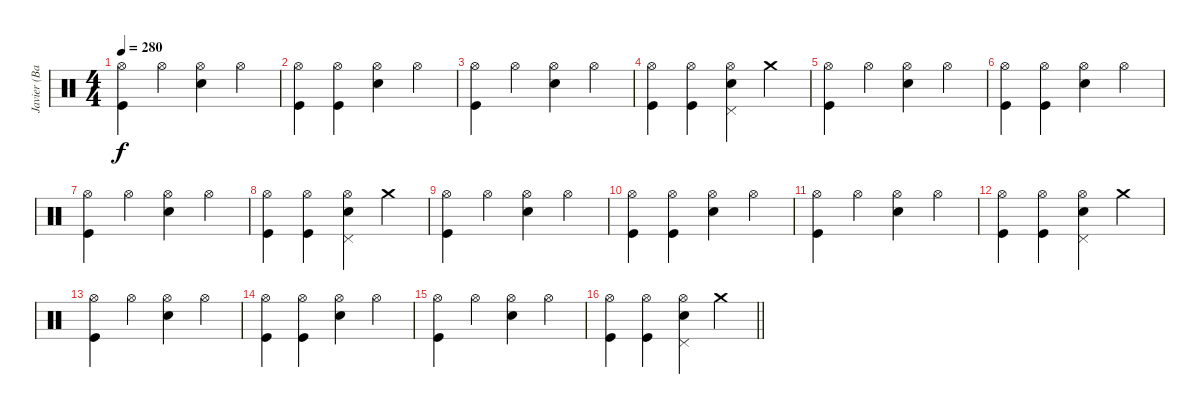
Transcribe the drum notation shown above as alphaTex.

\track ("Javier (Bateria)" "Javier (Ba") {instrument percussion}
\staff {score}
\articulation defaults
\ts (4 4)
\tempo 280
\clef neutral
\ks c
("Hi-Hat (open)" "Kick (hit)").4{dy f} "Hi-Hat (open)".4 ("Hi-Hat (open)" "Snare (hit) 2").4 "Hi-Hat (open)".4 |
("Hi-Hat (open)" "Kick (hit)").4 ("Hi-Hat (open)" "Kick (hit)").4 ("Hi-Hat (open)" "Snare (hit) 2").4 "Hi-Hat (open)".4 |
("Hi-Hat (open)" "Kick (hit)").4 "Hi-Hat (open)".4 ("Hi-Hat (open)" "Snare (hit) 2").4 "Hi-Hat (open)".4 |
("Hi-Hat (open)" "Kick (hit)").4 ("Hi-Hat (open)" "Kick (hit)").4 ("Hi-Hat (open)" "Pedal Hi-Hat (hit)" "Snare (hit) 2").4 "Crash medium (hit)".4 |
("Hi-Hat (open)" "Kick (hit)").4 "Hi-Hat (open)".4 ("Hi-Hat (open)" "Snare (hit) 2").4 "Hi-Hat (open)".4 |
("Hi-Hat (open)" "Kick (hit)").4 ("Hi-Hat (open)" "Kick (hit)").4 ("Hi-Hat (open)" "Snare (hit) 2").4 "Hi-Hat (open)".4 |
("Hi-Hat (open)" "Kick (hit)").4 "Hi-Hat (open)".4 ("Hi-Hat (open)" "Snare (hit) 2").4 "Hi-Hat (open)".4 |
("Hi-Hat (open)" "Kick (hit)").4 ("Hi-Hat (open)" "Kick (hit)").4 ("Hi-Hat (open)" "Pedal Hi-Hat (hit)" "Snare (hit) 2").4 "Crash medium (hit)".4 |
("Hi-Hat (open)" "Kick (hit)").4 "Hi-Hat (open)".4 ("Hi-Hat (open)" "Snare (hit) 2").4 "Hi-Hat (open)".4 |
("Hi-Hat (open)" "Kick (hit)").4 ("Hi-Hat (open)" "Kick (hit)").4 ("Hi-Hat (open)" "Snare (hit) 2").4 "Hi-Hat (open)".4 |
("Hi-Hat (open)" "Kick (hit)").4 "Hi-Hat (open)".4 ("Hi-Hat (open)" "Snare (hit) 2").4 "Hi-Hat (open)".4 |
("Hi-Hat (open)" "Kick (hit)").4 ("Hi-Hat (open)" "Kick (hit)").4 ("Hi-Hat (open)" "Pedal Hi-Hat (hit)" "Snare (hit) 2").4 "Crash medium (hit)".4 |
("Hi-Hat (open)" "Kick (hit)").4 "Hi-Hat (open)".4 ("Hi-Hat (open)" "Snare (hit) 2").4 "Hi-Hat (open)".4 |
("Hi-Hat (open)" "Kick (hit)").4 ("Hi-Hat (open)" "Kick (hit)").4 ("Hi-Hat (open)" "Snare (hit) 2").4 "Hi-Hat (open)".4 |
("Hi-Hat (open)" "Kick (hit)").4 "Hi-Hat (open)".4 ("Hi-Hat (open)" "Snare (hit) 2").4 "Hi-Hat (open)".4 |
\barLineRight lightlight
("Hi-Hat (open)" "Kick (hit)").4 ("Hi-Hat (open)" "Kick (hit)").4 ("Hi-Hat (open)" "Pedal Hi-Hat (hit)" "Snare (hit) 2").4 "Crash medium (hit)".4
